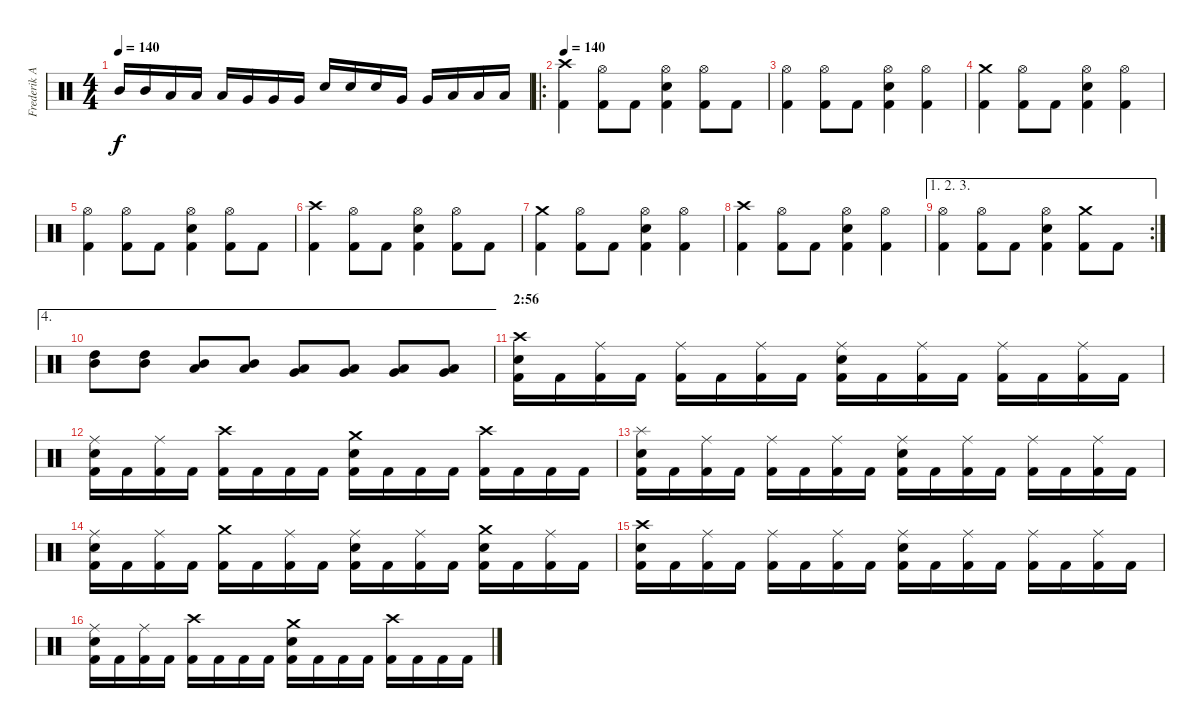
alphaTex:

\track ("Frederik Anderson" "Frederik A") {instrument percussion}
\staff {score}
\articulation defaults
\ts (4 4)
\tempo 140
\clef neutral
\ks c "Mid Tom (hit)".16{dy f} "Mid Tom (hit)".16 "Low Tom (hit)".16 "Low Tom (hit)".16 "Low Tom (hit)".16 "Very Low Tom (hit)".16 "Very Low Tom (hit)".16 "Very Low Tom (hit)".16 "Electric Snare (hit)".16 "Electric Snare (hit)".16 "Electric Snare (hit)".16 "Very Low Tom (hit)".16 "Very Low Tom (hit)".16 "Low Floor Tom (hit)".16 "Low Floor Tom (hit)".16 "Low Floor Tom (hit)".16
|
\ro
\tempo 140
("Crash high (hit)" "Kick (hit) 2").4 ("Hi-Hat (open)" "Kick (hit) 2").8 "Kick (hit) 2".8 ("Hi-Hat (open)" "Electric Snare (hit)" "Kick (hit) 2").4 ("Hi-Hat (open)" "Kick (hit) 2").8 "Kick (hit) 2".8 |
("Hi-Hat (open)" "Kick (hit) 2").4 ("Hi-Hat (open)" "Kick (hit) 2").8 "Kick (hit) 2".8 ("Hi-Hat (open)" "Electric Snare (hit)" "Kick (hit) 2").4 ("Hi-Hat (open)" "Kick (hit) 2").4 |
("Crash medium (hit)" "Kick (hit) 2").4 ("Hi-Hat (open)" "Kick (hit) 2").8 "Kick (hit) 2".8 ("Hi-Hat (open)" "Electric Snare (hit)" "Kick (hit) 2").4 ("Hi-Hat (open)" "Kick (hit) 2").4 |
("Hi-Hat (open)" "Kick (hit) 2").4 ("Hi-Hat (open)" "Kick (hit) 2").8 "Kick (hit) 2".8 ("Hi-Hat (open)" "Electric Snare (hit)" "Kick (hit) 2").4 ("Hi-Hat (open)" "Kick (hit) 2").8 "Kick (hit) 2".8 |
("Crash high (hit)" "Kick (hit) 2").4 ("Hi-Hat (open)" "Kick (hit) 2").8 "Kick (hit) 2".8 ("Hi-Hat (open)" "Electric Snare (hit)" "Kick (hit) 2").4 ("Hi-Hat (open)" "Kick (hit) 2").8 "Kick (hit) 2".8 |
("Crash medium (hit)" "Kick (hit) 2").4 ("Hi-Hat (open)" "Kick (hit) 2").8 "Kick (hit) 2".8 ("Hi-Hat (open)" "Electric Snare (hit)" "Kick (hit) 2").4 ("Hi-Hat (open)" "Kick (hit) 2").4 |
("Crash high (hit)" "Kick (hit) 2").4 ("Hi-Hat (open)" "Kick (hit) 2").8 "Kick (hit) 2".8 ("Hi-Hat (open)" "Electric Snare (hit)" "Kick (hit) 2").4 ("Hi-Hat (open)" "Kick (hit) 2").4 |
\ae (1 2 3)
\rc 2
("Hi-Hat (open)" "Kick (hit) 2").4 ("Hi-Hat (open)" "Kick (hit) 2").8 "Kick (hit) 2".8 ("Hi-Hat (open)" "Electric Snare (hit)" "Kick (hit) 2").4 ("Crash medium (hit)" "Kick (hit) 2").8 "Kick (hit) 2".8 |
\ae 4
("High Tom (hit)" "Mid Tom (hit)").8 ("High Tom (hit)" "Mid Tom (hit)").8 ("Mid Tom (hit)" "Low Tom (hit)").8 ("Mid Tom (hit)" "Low Tom (hit)").8 ("Low Tom (hit)" "Very Low Tom (hit)").8 ("Low Tom (hit)" "Very Low Tom (hit)").8 ("Very Low Tom (hit)" "Low Floor Tom (hit)").8 ("Very Low Tom (hit)" "Low Floor Tom (hit)").8 |
\section ("" "2:56")
("Crash high (hit)" "Electric Snare (hit)" "Kick (hit) 2").16 "Kick (hit) 2".16 ("Ride (middle)" "Kick (hit) 2").16 "Kick (hit) 2".16 ("Ride (middle)" "Kick (hit) 2").16 "Kick (hit) 2".16 ("Ride (middle)" "Kick (hit) 2").16 "Kick (hit) 2".16 ("Ride (middle)" "Electric Snare (hit)" "Kick (hit) 2").16 "Kick (hit) 2".16 ("Ride (middle)" "Kick (hit) 2").16 "Kick (hit) 2".16 ("Ride (middle)" "Kick (hit) 2").16 "Kick (hit) 2".16 ("Ride (middle)" "Kick (hit) 2").16 "Kick (hit) 2".16 |
("Ride (middle)" "Electric Snare (hit)" "Kick (hit) 2").16 "Kick (hit) 2".16 ("Ride (middle)" "Kick (hit) 2").16 "Kick (hit) 2".16 ("Crash high (hit)" "Kick (hit) 2").16 "Kick (hit) 2".16 "Kick (hit) 2".16 "Kick (hit) 2".16 ("Crash medium (hit)" "Electric Snare (hit)" "Kick (hit) 2").16 "Kick (hit) 2".16 "Kick (hit) 2".16 "Kick (hit) 2".16 ("Crash high (hit)" "Kick (hit) 2").16 "Kick (hit) 2".16 "Kick (hit) 2".16 "Kick (hit) 2".16 |
("Splash (hit)" "Electric Snare (hit)" "Kick (hit) 2").16 "Kick (hit) 2".16 ("Ride (middle)" "Kick (hit) 2").16 "Kick (hit) 2".16 ("Ride (middle)" "Kick (hit) 2").16 "Kick (hit) 2".16 ("Ride (middle)" "Kick (hit) 2").16 "Kick (hit) 2".16 ("Ride (middle)" "Electric Snare (hit)" "Kick (hit) 2").16 "Kick (hit) 2".16 ("Ride (middle)" "Kick (hit) 2").16 "Kick (hit) 2".16 ("Ride (middle)" "Kick (hit) 2").16 "Kick (hit) 2".16 ("Ride (middle)" "Kick (hit) 2").16 "Kick (hit) 2".16 |
("Ride (middle)" "Electric Snare (hit)" "Kick (hit) 2").16 "Kick (hit) 2".16 ("Ride (middle)" "Kick (hit) 2").16 "Kick (hit) 2".16 ("Crash medium (hit)" "Kick (hit) 2").16 "Kick (hit) 2".16 ("Ride (middle)" "Kick (hit) 2").16 "Kick (hit) 2".16 ("Ride (middle)" "Electric Snare (hit)" "Kick (hit) 2").16 "Kick (hit) 2".16 ("Ride (middle)" "Kick (hit) 2").16 "Kick (hit) 2".16 ("Crash medium (hit)" "Electric Snare (hit)" "Kick (hit) 2").16 "Kick (hit) 2".16 ("Ride (middle)" "Kick (hit) 2").16 "Kick (hit) 2".16 |
("Crash high (hit)" "Electric Snare (hit)" "Kick (hit) 2").16 "Kick (hit) 2".16 ("Ride (middle)" "Kick (hit) 2").16 "Kick (hit) 2".16 ("Ride (middle)" "Kick (hit) 2").16 "Kick (hit) 2".16 ("Ride (middle)" "Kick (hit) 2").16 "Kick (hit) 2".16 ("Ride (middle)" "Electric Snare (hit)" "Kick (hit) 2").16 "Kick (hit) 2".16 ("Ride (middle)" "Kick (hit) 2").16 "Kick (hit) 2".16 ("Ride (middle)" "Kick (hit) 2").16 "Kick (hit) 2".16 ("Ride (middle)" "Kick (hit) 2").16 "Kick (hit) 2".16 |
("Ride (middle)" "Electric Snare (hit)" "Kick (hit) 2").16 "Kick (hit) 2".16 ("Ride (middle)" "Kick (hit) 2").16 "Kick (hit) 2".16 ("Crash high (hit)" "Kick (hit) 2").16 "Kick (hit) 2".16 "Kick (hit) 2".16 "Kick (hit) 2".16 ("Crash medium (hit)" "Electric Snare (hit)" "Kick (hit) 2").16 "Kick (hit) 2".16 "Kick (hit) 2".16 "Kick (hit) 2".16 ("Crash high (hit)" "Kick (hit) 2").16 "Kick (hit) 2".16 "Kick (hit) 2".16 "Kick (hit) 2".16
